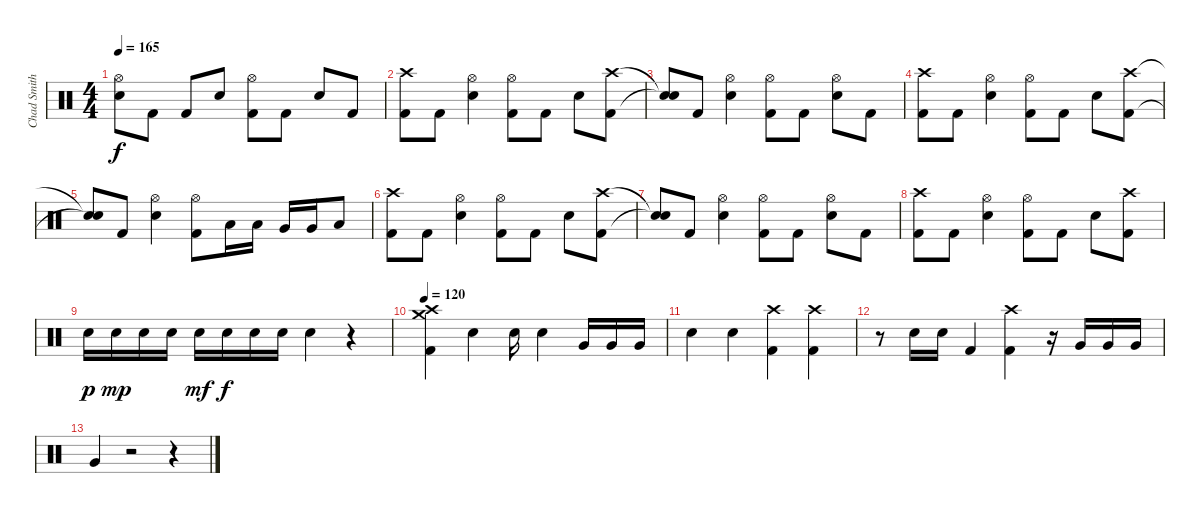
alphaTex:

\track ("Chad Smith - Drums" "Chad Smith") {instrument percussion}
\staff {score}
\articulation defaults
\ts (4 4)
\tempo 165
\clef neutral
\ks c
("Hi-Hat (open)" "Snare (hit) 2").8{dy f} "Kick (hit) 2".8 "Kick (hit) 2".8 "Snare (hit) 2".8 ("Hi-Hat (open)" "Kick (hit) 2").8 "Kick (hit) 2".8 "Snare (hit) 2".8 "Kick (hit) 2".8 |
("Crash high (hit)" "Kick (hit) 2").8 "Kick (hit) 2".8 ("Hi-Hat (open)" "Snare (hit) 2").4 ("Hi-Hat (open)" "Kick (hit) 2").8 "Kick (hit) 2".8 "Snare (hit) 2".8 ("Crash high (hit)" "Kick (hit) 2").8 |
("Snare (hit)"{t} "Snare (hit)"{t}).8 "Kick (hit) 2".8 ("Hi-Hat (open)" "Snare (hit) 2").4 ("Hi-Hat (open)" "Kick (hit) 2").8 "Kick (hit) 2".8 ("Hi-Hat (open)" "Snare (hit) 2").8 "Kick (hit) 2".8 |
("Crash high (hit)" "Kick (hit) 2").8 "Kick (hit) 2".8 ("Hi-Hat (open)" "Snare (hit) 2").4 ("Hi-Hat (open)" "Kick (hit) 2").8 "Kick (hit) 2".8 "Snare (hit) 2".8 ("Crash high (hit)" "Kick (hit) 2").8 |
("Snare (hit)"{t} "Snare (hit)"{t}).8 "Kick (hit) 2".8 ("Hi-Hat (open)" "Snare (hit) 2").4 ("Hi-Hat (open)" "Kick (hit) 2").8 "Low Tom (hit)".16 "Low Tom (hit)".16 "Very Low Tom (hit)".16 "Very Low Tom (hit)".16 "Low Floor Tom (hit)".8 |
("Crash high (hit)" "Kick (hit) 2").8 "Kick (hit) 2".8 ("Hi-Hat (open)" "Snare (hit) 2").4 ("Hi-Hat (open)" "Kick (hit) 2").8 "Kick (hit) 2".8 "Snare (hit) 2".8 ("Crash high (hit)" "Kick (hit) 2").8 |
("Snare (hit)"{t} "Snare (hit)"{t}).8 "Kick (hit) 2".8 ("Hi-Hat (open)" "Snare (hit) 2").4 ("Hi-Hat (open)" "Kick (hit) 2").8 "Kick (hit) 2".8 ("Hi-Hat (open)" "Snare (hit) 2").8 "Kick (hit) 2".8 |
("Crash high (hit)" "Kick (hit) 2").8 "Kick (hit) 2".8 ("Hi-Hat (open)" "Snare (hit) 2").4 ("Hi-Hat (open)" "Kick (hit) 2").8 "Kick (hit) 2".8 "Snare (hit) 2".8 ("Crash high (hit)" "Kick (hit) 2").8 |
"Snare (hit) 2".16{dy p} "Snare (hit) 2".16{dy mp} "Snare (hit) 2".16 "Snare (hit) 2".16 "Snare (hit) 2".16{dy mf} "Snare (hit) 2".16{dy f} "Snare (hit) 2".16 "Snare (hit) 2".16 "Snare (hit) 2".4 r.4 |
\tempo 120
("Crash medium (hit)" "Crash high (hit)" "Kick (hit) 2").4 "Snare (hit) 2".4 "Snare (hit) 2".16 "Snare (hit) 2".4 "Very Low Tom (hit)".16 "Very Low Tom (hit)".16 "Very Low Tom (hit)".16 |
"Snare (hit) 2".4 "Snare (hit) 2".4 ("Crash high (hit)" "Kick (hit) 2").4 ("Crash high (hit)" "Kick (hit) 2").4 |
r.8 "Snare (hit) 2".16 "Snare (hit) 2".16 "Kick (hit) 2".4 ("Crash high (hit)" "Kick (hit) 2").4 r.16 "Very Low Tom (hit)".16 "Very Low Tom (hit)".16 "Very Low Tom (hit)".16 |
"Very Low Tom (hit)".4 r.2 r.4
